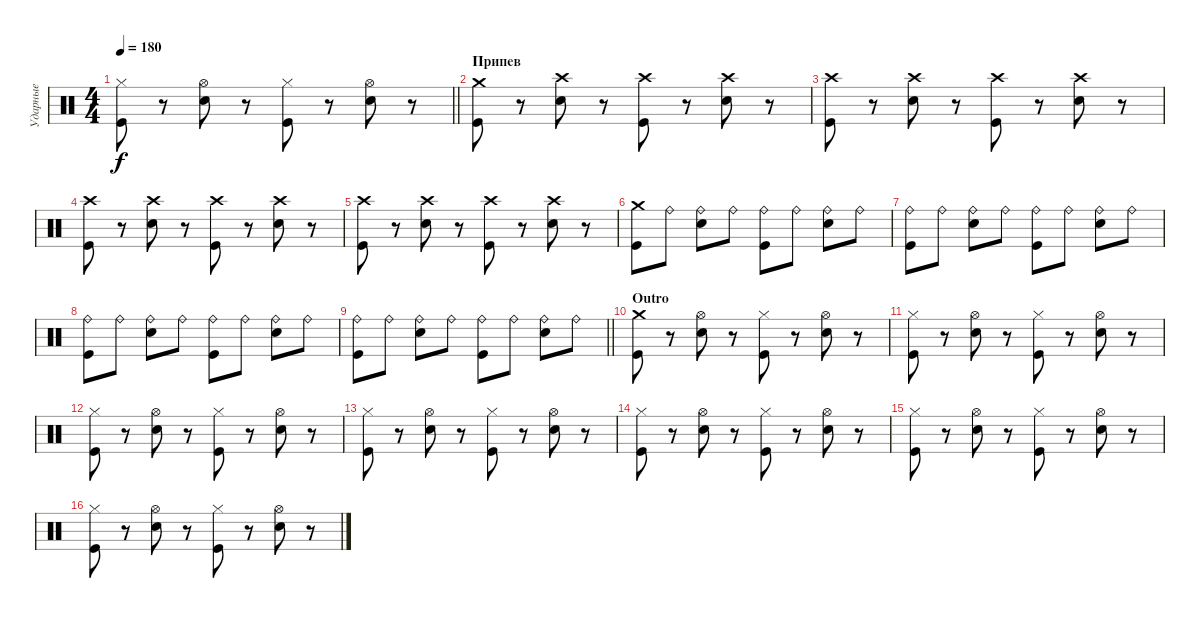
\track ("Ударные" "Ударные") {instrument percussion}
\staff {score}
\articulation defaults
\ts (4 4)
\tempo 180
\clef neutral
\barLineRight lightlight
\ks c
("Hi-Hat (closed)" "Kick (hit)").8{dy f} r.8 ("Hi-Hat (open)" "Electric Snare (hit)").8 r.8 ("Hi-Hat (closed)" "Kick (hit)").8 r.8 ("Hi-Hat (open)" "Electric Snare (hit)").8 r.8 |
\section ("" "Припев")
("Crash medium (hit)" "Kick (hit)").8 r.8 ("Crash high (hit)" "Electric Snare (hit)").8 r.8 ("Crash high (hit)" "Kick (hit)").8 r.8 ("Crash high (hit)" "Electric Snare (hit)").8 r.8 |
("Crash high (hit)" "Kick (hit)").8 r.8 ("Crash high (hit)" "Electric Snare (hit)").8 r.8 ("Crash high (hit)" "Kick (hit)").8 r.8 ("Crash high (hit)" "Electric Snare (hit)").8 r.8 |
("Crash high (hit)" "Kick (hit)").8 r.8 ("Crash high (hit)" "Electric Snare (hit)").8 r.8 ("Crash high (hit)" "Kick (hit)").8 r.8 ("Crash high (hit)" "Electric Snare (hit)").8 r.8 |
("Crash high (hit)" "Kick (hit)").8 r.8 ("Crash high (hit)" "Electric Snare (hit)").8 r.8 ("Crash high (hit)" "Kick (hit)").8 r.8 ("Crash high (hit)" "Electric Snare (hit)").8 r.8 |
("Crash medium (hit)" "Kick (hit)").8 "Ride (bell)".8 ("Ride (bell)" "Electric Snare (hit)").8 "Ride (bell)".8 ("Ride (bell)" "Kick (hit)").8 "Ride (bell)".8 ("Ride (bell)" "Electric Snare (hit)").8 "Ride (bell)".8 |
("Ride (bell)" "Kick (hit)").8 "Ride (bell)".8 ("Ride (bell)" "Electric Snare (hit)").8 "Ride (bell)".8 ("Ride (bell)" "Kick (hit)").8 "Ride (bell)".8 ("Ride (bell)" "Electric Snare (hit)").8 "Ride (bell)".8 |
("Ride (bell)" "Kick (hit)").8 "Ride (bell)".8 ("Ride (bell)" "Electric Snare (hit)").8 "Ride (bell)".8 ("Ride (bell)" "Kick (hit)").8 "Ride (bell)".8 ("Ride (bell)" "Electric Snare (hit)").8 "Ride (bell)".8 |
\barLineRight lightlight
("Ride (bell)" "Kick (hit)").8 "Ride (bell)".8 ("Ride (bell)" "Electric Snare (hit)").8 "Ride (bell)".8 ("Ride (bell)" "Kick (hit)").8 "Ride (bell)".8 ("Ride (bell)" "Electric Snare (hit)").8 "Ride (bell)".8 |
\section ("" "Outro")
("Crash medium (hit)" "Kick (hit)").8 r.8 ("Hi-Hat (open)" "Electric Snare (hit)").8 r.8 ("Hi-Hat (closed)" "Kick (hit)").8 r.8 ("Hi-Hat (open)" "Electric Snare (hit)").8 r.8 |
("Hi-Hat (closed)" "Kick (hit)").8 r.8 ("Hi-Hat (open)" "Electric Snare (hit)").8 r.8 ("Hi-Hat (closed)" "Kick (hit)").8 r.8 ("Hi-Hat (open)" "Electric Snare (hit)").8 r.8 |
("Hi-Hat (closed)" "Kick (hit)").8 r.8 ("Hi-Hat (open)" "Electric Snare (hit)").8 r.8 ("Hi-Hat (closed)" "Kick (hit)").8 r.8 ("Hi-Hat (open)" "Electric Snare (hit)").8 r.8 |
("Hi-Hat (closed)" "Kick (hit)").8 r.8 ("Hi-Hat (open)" "Electric Snare (hit)").8 r.8 ("Hi-Hat (closed)" "Kick (hit)").8 r.8 ("Hi-Hat (open)" "Electric Snare (hit)").8 r.8 |
("Hi-Hat (closed)" "Kick (hit)").8 r.8 ("Hi-Hat (open)" "Electric Snare (hit)").8 r.8 ("Hi-Hat (closed)" "Kick (hit)").8 r.8 ("Hi-Hat (open)" "Electric Snare (hit)").8 r.8 |
("Hi-Hat (closed)" "Kick (hit)").8 r.8 ("Hi-Hat (open)" "Electric Snare (hit)").8 r.8 ("Hi-Hat (closed)" "Kick (hit)").8 r.8 ("Hi-Hat (open)" "Electric Snare (hit)").8 r.8 |
("Hi-Hat (closed)" "Kick (hit)").8 r.8 ("Hi-Hat (open)" "Electric Snare (hit)").8 r.8 ("Hi-Hat (closed)" "Kick (hit)").8 r.8 ("Hi-Hat (open)" "Electric Snare (hit)").8 r.8
